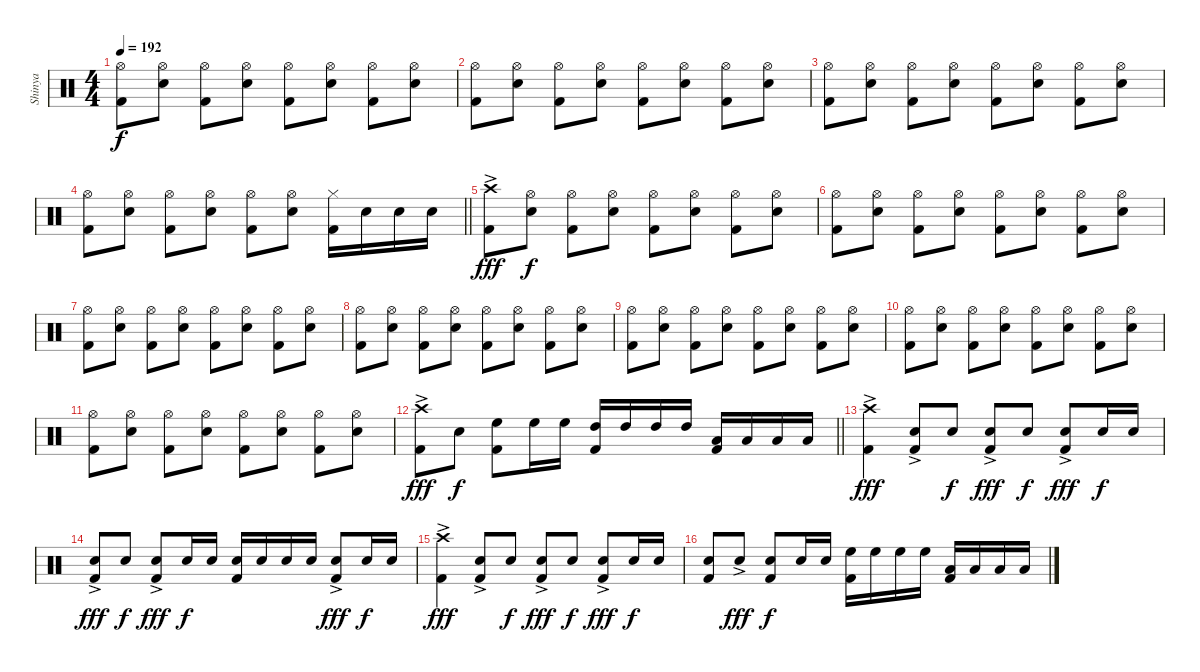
\track ("Shinya" "Shinya") {instrument percussion}
\staff {score}
\articulation defaults
\ts (4 4)
\tempo 192
\clef neutral
\ks c
("Hi-Hat (open)" "Kick (hit) 2").8{dy f} ("Hi-Hat (open)" "Snare (hit) 2").8 ("Hi-Hat (open)" "Kick (hit) 2").8 ("Hi-Hat (open)" "Snare (hit) 2").8 ("Hi-Hat (open)" "Kick (hit) 2").8 ("Hi-Hat (open)" "Snare (hit) 2").8 ("Hi-Hat (open)" "Kick (hit) 2").8 ("Hi-Hat (open)" "Snare (hit) 2").8 |
("Hi-Hat (open)" "Kick (hit) 2").8 ("Hi-Hat (open)" "Snare (hit) 2").8 ("Hi-Hat (open)" "Kick (hit) 2").8 ("Hi-Hat (open)" "Snare (hit) 2").8 ("Hi-Hat (open)" "Kick (hit) 2").8 ("Hi-Hat (open)" "Snare (hit) 2").8 ("Hi-Hat (open)" "Kick (hit) 2").8 ("Hi-Hat (open)" "Snare (hit) 2").8 |
("Hi-Hat (open)" "Kick (hit) 2").8 ("Hi-Hat (open)" "Snare (hit) 2").8 ("Hi-Hat (open)" "Kick (hit) 2").8 ("Hi-Hat (open)" "Snare (hit) 2").8 ("Hi-Hat (open)" "Kick (hit) 2").8 ("Hi-Hat (open)" "Snare (hit) 2").8 ("Hi-Hat (open)" "Kick (hit) 2").8 ("Hi-Hat (open)" "Snare (hit) 2").8 |
\barLineRight lightlight
("Hi-Hat (open)" "Kick (hit) 2").8 ("Hi-Hat (open)" "Snare (hit) 2").8 ("Hi-Hat (open)" "Kick (hit) 2").8 ("Hi-Hat (open)" "Snare (hit) 2").8 ("Hi-Hat (open)" "Kick (hit) 2").8 ("Hi-Hat (open)" "Snare (hit) 2").8 ("Hi-Hat (closed)" "Kick (hit) 2").16 "Snare (hit) 2".16 "Snare (hit) 2".16 "Snare (hit) 2".16 |
("Crash high (hit)"{ac} "Kick (hit) 2").8{dy fff} ("Hi-Hat (open)" "Snare (hit) 2").8{dy f} ("Hi-Hat (open)" "Kick (hit) 2").8 ("Hi-Hat (open)" "Snare (hit) 2").8 ("Hi-Hat (open)" "Kick (hit) 2").8 ("Hi-Hat (open)" "Snare (hit) 2").8 ("Hi-Hat (open)" "Kick (hit) 2").8 ("Hi-Hat (open)" "Snare (hit) 2").8 |
("Hi-Hat (open)" "Kick (hit) 2").8 ("Hi-Hat (open)" "Snare (hit) 2").8 ("Hi-Hat (open)" "Kick (hit) 2").8 ("Hi-Hat (open)" "Snare (hit) 2").8 ("Hi-Hat (open)" "Kick (hit) 2").8 ("Hi-Hat (open)" "Snare (hit) 2").8 ("Hi-Hat (open)" "Kick (hit) 2").8 ("Hi-Hat (open)" "Snare (hit) 2").8 |
("Hi-Hat (open)" "Kick (hit) 2").8 ("Hi-Hat (open)" "Snare (hit) 2").8 ("Hi-Hat (open)" "Kick (hit) 2").8 ("Hi-Hat (open)" "Snare (hit) 2").8 ("Hi-Hat (open)" "Kick (hit) 2").8 ("Hi-Hat (open)" "Snare (hit) 2").8 ("Hi-Hat (open)" "Kick (hit) 2").8 ("Hi-Hat (open)" "Snare (hit) 2").8 |
("Hi-Hat (open)" "Kick (hit) 2").8 ("Hi-Hat (open)" "Snare (hit) 2").8 ("Hi-Hat (open)" "Kick (hit) 2").8 ("Hi-Hat (open)" "Snare (hit) 2").8 ("Hi-Hat (open)" "Kick (hit) 2").8 ("Hi-Hat (open)" "Snare (hit) 2").8 ("Hi-Hat (open)" "Kick (hit) 2").8 ("Hi-Hat (open)" "Snare (hit) 2").8 |
("Hi-Hat (open)" "Kick (hit) 2").8 ("Hi-Hat (open)" "Snare (hit) 2").8 ("Hi-Hat (open)" "Kick (hit) 2").8 ("Hi-Hat (open)" "Snare (hit) 2").8 ("Hi-Hat (open)" "Kick (hit) 2").8 ("Hi-Hat (open)" "Snare (hit) 2").8 ("Hi-Hat (open)" "Kick (hit) 2").8 ("Hi-Hat (open)" "Snare (hit) 2").8 |
("Hi-Hat (open)" "Kick (hit) 2").8 ("Hi-Hat (open)" "Snare (hit) 2").8 ("Hi-Hat (open)" "Kick (hit) 2").8 ("Hi-Hat (open)" "Snare (hit) 2").8 ("Hi-Hat (open)" "Kick (hit) 2").8 ("Hi-Hat (open)" "Snare (hit) 2").8 ("Hi-Hat (open)" "Kick (hit) 2").8 ("Hi-Hat (open)" "Snare (hit) 2").8 |
("Hi-Hat (open)" "Kick (hit) 2").8 ("Hi-Hat (open)" "Snare (hit) 2").8 ("Hi-Hat (open)" "Kick (hit) 2").8 ("Hi-Hat (open)" "Snare (hit) 2").8 ("Hi-Hat (open)" "Kick (hit) 2").8 ("Hi-Hat (open)" "Snare (hit) 2").8 ("Hi-Hat (open)" "Kick (hit) 2").8 ("Hi-Hat (open)" "Snare (hit) 2").8 |
\barLineRight lightlight
("Crash high (hit)"{ac} "Kick (hit) 2").8{dy fff} "Snare (hit) 2".8{dy f} ("High Floor Tom (hit)" "Kick (hit) 2").8 "High Floor Tom (hit)".16 "High Floor Tom (hit)".16 ("High Tom (hit)" "Kick (hit) 2").16 "High Tom (hit)".16 "High Tom (hit)".16 "High Tom (hit)".16 ("Low Tom (hit)" "Kick (hit) 2").16 "Low Tom (hit)".16 "Low Tom (hit)".16 "Low Tom (hit)".16 |
("Crash high (hit)"{ac} "Kick (hit) 2").4{dy fff} ("Snare (hit) 2"{ac} "Kick (hit) 2").8 "Snare (hit) 2".8{dy f} ("Snare (hit) 2"{ac} "Kick (hit) 2").8{dy fff} "Snare (hit) 2".8{dy f} ("Snare (hit) 2"{ac} "Kick (hit) 2").8{dy fff} "Snare (hit) 2".16{dy f} "Snare (hit) 2".16 |
("Snare (hit) 2"{ac} "Kick (hit) 2").8{dy fff} "Snare (hit) 2".8{dy f} ("Snare (hit) 2"{ac} "Kick (hit) 2").8{dy fff} "Snare (hit) 2".16{dy f} "Snare (hit) 2".16 ("Snare (hit) 2" "Kick (hit) 2").16 "Snare (hit) 2".16 "Snare (hit) 2".16 "Snare (hit) 2".16 ("Snare (hit) 2"{ac} "Kick (hit) 2").8{dy fff} "Snare (hit) 2".16{dy f} "Snare (hit) 2".16 |
("Crash high (hit)"{ac} "Kick (hit) 2").4{dy fff} ("Snare (hit) 2"{ac} "Kick (hit) 2").8 "Snare (hit) 2".8{dy f} ("Snare (hit) 2"{ac} "Kick (hit) 2").8{dy fff} "Snare (hit) 2".8{dy f} ("Snare (hit) 2"{ac} "Kick (hit) 2").8{dy fff} "Snare (hit) 2".16{dy f} "Snare (hit) 2".16 |
("Snare (hit) 2" "Kick (hit) 2").8 "Snare (hit) 2"{ac}.8{dy fff} ("Snare (hit) 2" "Kick (hit) 2").8{dy f} "Snare (hit) 2".16 "Snare (hit) 2".16 ("High Floor Tom (hit)" "Kick (hit) 2").16 "High Floor Tom (hit)".16 "High Floor Tom (hit)".16 "High Floor Tom (hit)".16 ("Low Tom (hit)" "Kick (hit) 2").16 "Low Tom (hit)".16 "Low Tom (hit)".16 "Low Tom (hit)".16
